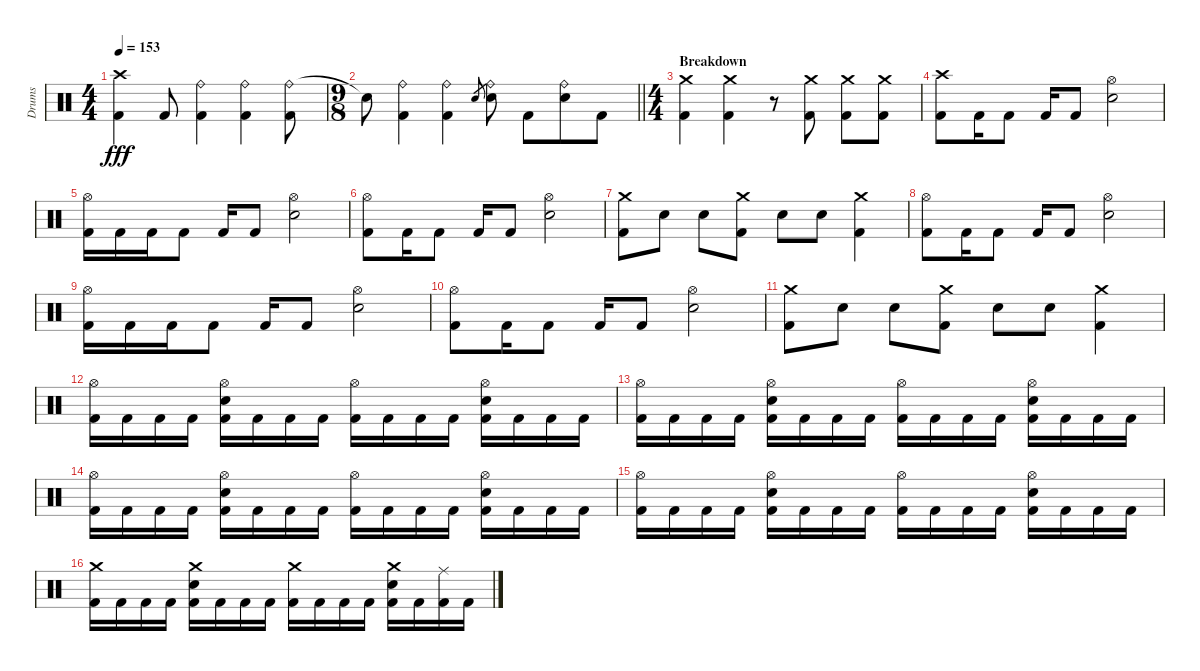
\track ("Drums" "Drums") {instrument percussion}
\staff {score}
\articulation defaults
\ts (4 4)
\tempo 153
\clef neutral
\ks c
("Crash high (hit)" "Kick (hit) 2").4{dy fff} "Kick (hit) 2".8 ("Ride (bell)" "Kick (hit) 2").4 ("Ride (bell)" "Kick (hit) 2").4 ("Ride (bell)" "Kick (hit) 2").8 |
\ts (9 8)
\barLineRight lightlight "Snare (hit)"{t}.8
("Ride (bell)" "Kick (hit) 2").4 ("Ride (bell)" "Kick (hit) 2").4 "Electric Snare (hit)".8{gr} ("Ride (bell)" "Electric Snare (hit)").8 "Kick (hit) 2".8 ("Ride (bell)" "Electric Snare (hit)").8 "Kick (hit) 2".8 |
\ts (4 4)
\section ("" "Breakdown")
("Crash medium (hit)" "Kick (hit) 2").4 ("Crash medium (hit)" "Kick (hit) 2").4 r.8 ("Crash medium (hit)" "Kick (hit) 2").8 ("Crash medium (hit)" "Kick (hit) 2").8 ("Crash medium (hit)" "Kick (hit) 2").8 |
("Crash high (hit)" "Kick (hit) 2").8 "Kick (hit) 2".16 "Kick (hit) 2".8 "Kick (hit) 2".16 "Kick (hit) 2".8 ("Hi-Hat (open)" "Electric Snare (hit)").2 |
("Hi-Hat (open)" "Kick (hit) 2").16 "Kick (hit) 2".16 "Kick (hit) 2".16 "Kick (hit) 2".8 "Kick (hit) 2".16 "Kick (hit) 2".8 ("Hi-Hat (open)" "Electric Snare (hit)").2 |
("Hi-Hat (open)" "Kick (hit) 2").8 "Kick (hit) 2".16 "Kick (hit) 2".8 "Kick (hit) 2".16 "Kick (hit) 2".8 ("Hi-Hat (open)" "Electric Snare (hit)").2 |
("Crash medium (hit)" "Kick (hit) 2").8 "Electric Snare (hit)".8 "Electric Snare (hit)".8 ("Crash medium (hit)" "Kick (hit) 2").8 "Electric Snare (hit)".8 "Electric Snare (hit)".8 ("Crash medium (hit)" "Kick (hit) 2").4 |
("Hi-Hat (open)" "Kick (hit) 2").8 "Kick (hit) 2".16 "Kick (hit) 2".8 "Kick (hit) 2".16 "Kick (hit) 2".8 ("Hi-Hat (open)" "Electric Snare (hit)").2 |
("Hi-Hat (open)" "Kick (hit) 2").16 "Kick (hit) 2".16 "Kick (hit) 2".16 "Kick (hit) 2".8 "Kick (hit) 2".16 "Kick (hit) 2".8 ("Hi-Hat (open)" "Electric Snare (hit)").2 |
("Hi-Hat (open)" "Kick (hit) 2").8 "Kick (hit) 2".16 "Kick (hit) 2".8 "Kick (hit) 2".16 "Kick (hit) 2".8 ("Hi-Hat (open)" "Electric Snare (hit)").2 |
("Crash medium (hit)" "Kick (hit) 2").8 "Electric Snare (hit)".8 "Electric Snare (hit)".8 ("Crash medium (hit)" "Kick (hit) 2").8 "Electric Snare (hit)".8 "Electric Snare (hit)".8 ("Crash medium (hit)" "Kick (hit) 2").4 |
("Hi-Hat (open)" "Kick (hit) 2").16 "Kick (hit) 2".16 "Kick (hit) 2".16 "Kick (hit) 2".16 ("Hi-Hat (open)" "Electric Snare (hit)" "Kick (hit) 2").16 "Kick (hit) 2".16 "Kick (hit) 2".16 "Kick (hit) 2".16 ("Hi-Hat (open)" "Kick (hit) 2").16 "Kick (hit) 2".16 "Kick (hit) 2".16 "Kick (hit) 2".16 ("Hi-Hat (open)" "Electric Snare (hit)" "Kick (hit) 2").16 "Kick (hit) 2".16 "Kick (hit) 2".16 "Kick (hit) 2".16 |
("Hi-Hat (open)" "Kick (hit) 2").16 "Kick (hit) 2".16 "Kick (hit) 2".16 "Kick (hit) 2".16 ("Hi-Hat (open)" "Electric Snare (hit)" "Kick (hit) 2").16 "Kick (hit) 2".16 "Kick (hit) 2".16 "Kick (hit) 2".16 ("Hi-Hat (open)" "Kick (hit) 2").16 "Kick (hit) 2".16 "Kick (hit) 2".16 "Kick (hit) 2".16 ("Hi-Hat (open)" "Electric Snare (hit)" "Kick (hit) 2").16 "Kick (hit) 2".16 "Kick (hit) 2".16 "Kick (hit) 2".16 |
("Hi-Hat (open)" "Kick (hit) 2").16 "Kick (hit) 2".16 "Kick (hit) 2".16 "Kick (hit) 2".16 ("Hi-Hat (open)" "Electric Snare (hit)" "Kick (hit) 2").16 "Kick (hit) 2".16 "Kick (hit) 2".16 "Kick (hit) 2".16 ("Hi-Hat (open)" "Kick (hit) 2").16 "Kick (hit) 2".16 "Kick (hit) 2".16 "Kick (hit) 2".16 ("Hi-Hat (open)" "Electric Snare (hit)" "Kick (hit) 2").16 "Kick (hit) 2".16 "Kick (hit) 2".16 "Kick (hit) 2".16 |
("Hi-Hat (open)" "Kick (hit) 2").16 "Kick (hit) 2".16 "Kick (hit) 2".16 "Kick (hit) 2".16 ("Hi-Hat (open)" "Electric Snare (hit)" "Kick (hit) 2").16 "Kick (hit) 2".16 "Kick (hit) 2".16 "Kick (hit) 2".16 ("Hi-Hat (open)" "Kick (hit) 2").16 "Kick (hit) 2".16 "Kick (hit) 2".16 "Kick (hit) 2".16 ("Hi-Hat (open)" "Electric Snare (hit)" "Kick (hit) 2").16 "Kick (hit) 2".16 "Kick (hit) 2".16 "Kick (hit) 2".16 |
("Crash medium (hit)" "Kick (hit) 2").16 "Kick (hit) 2".16 "Kick (hit) 2".16 "Kick (hit) 2".16 ("Crash medium (hit)" "Electric Snare (hit)" "Kick (hit) 2").16 "Kick (hit) 2".16 "Kick (hit) 2".16 "Kick (hit) 2".16 ("Crash medium (hit)" "Kick (hit) 2").16 "Kick (hit) 2".16 "Kick (hit) 2".16 "Kick (hit) 2".16 ("Crash medium (hit)" "Electric Snare (hit)" "Kick (hit) 2").16 "Kick (hit) 2".16 ("Ride (middle)" "Kick (hit) 2").16 "Kick (hit) 2".16
